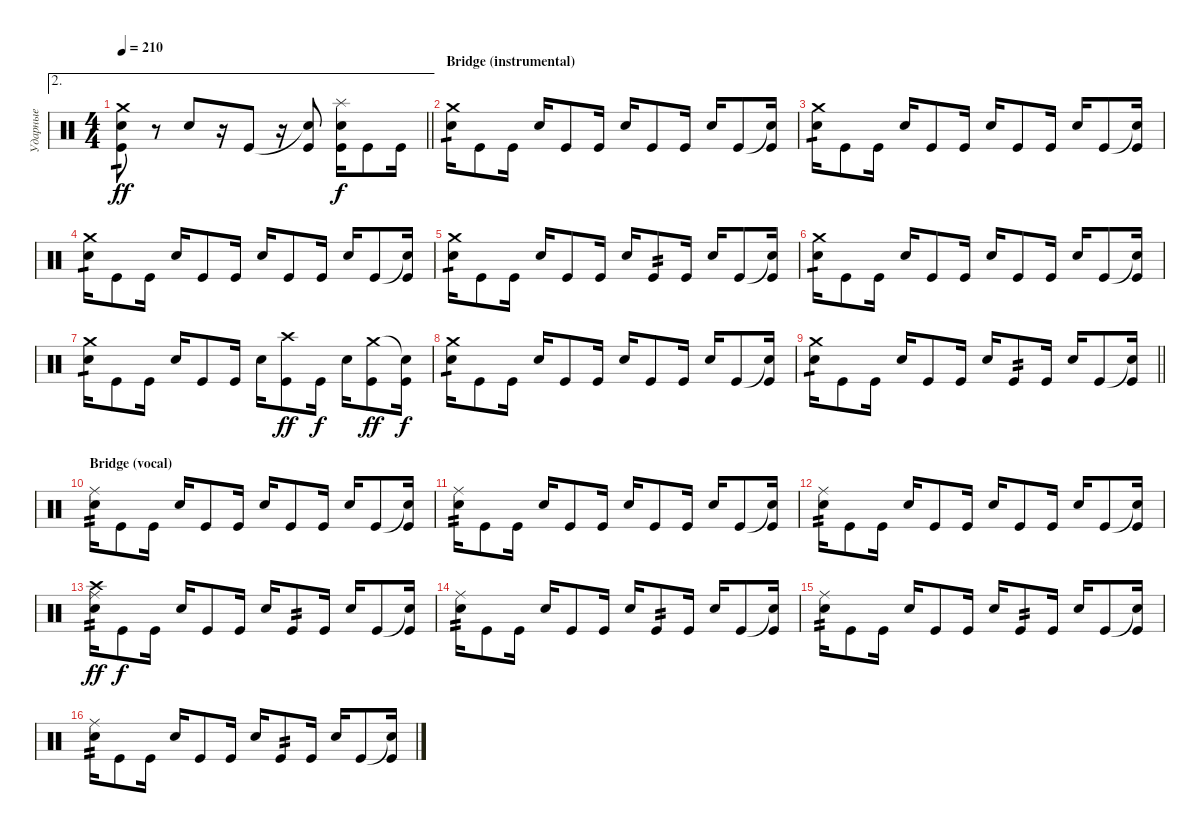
\track ("Ударные" "Ударные") {instrument percussion}
\staff {score}
\articulation defaults
\ae 2
\ts (4 4)
\tempo 210
\clef neutral
\barLineRight lightlight
\ks c
("Crash medium (hit)" "Electric Snare (hit)" "Kick (hit)").8{tp 1 dy ff} r.8 "Electric Snare (hit)".8 r.16 "Kick (hit)".8 r.16 ("Snare (hit)"{t} "Kick (hit)").8 ("Splash (hit)" "Electric Snare (hit)" "Kick (hit)").16{dy f} "Kick (hit)".8 "Kick (hit)".16 |
\section ("" "Bridge (instrumental)")
("Crash medium (hit)" "Electric Snare (hit)").16{tp 1} "Kick (hit)".8 "Kick (hit)".16 "Electric Snare (hit)".16 "Kick (hit)".8 "Kick (hit)".16 "Electric Snare (hit)".16 "Kick (hit)".8 "Kick (hit)".16 "Electric Snare (hit)".16 "Kick (hit)".8 ("Snare (hit)"{t} "Kick (hit)").16 |
("Crash medium (hit)" "Electric Snare (hit)").16{tp 1} "Kick (hit)".8 "Kick (hit)".16 "Electric Snare (hit)".16 "Kick (hit)".8 "Kick (hit)".16 "Electric Snare (hit)".16 "Kick (hit)".8 "Kick (hit)".16 "Electric Snare (hit)".16 "Kick (hit)".8 ("Snare (hit)"{t} "Kick (hit)").16 |
("Crash medium (hit)" "Electric Snare (hit)").16{tp 1} "Kick (hit)".8 "Kick (hit)".16 "Electric Snare (hit)".16 "Kick (hit)".8 "Kick (hit)".16 "Electric Snare (hit)".16 "Kick (hit)".8 "Kick (hit)".16 "Electric Snare (hit)".16 "Kick (hit)".8 ("Snare (hit)"{t} "Kick (hit)").16 |
("Crash medium (hit)" "Electric Snare (hit)").16{tp 1} "Kick (hit)".8 "Kick (hit)".16 "Electric Snare (hit)".16 "Kick (hit)".8 "Kick (hit)".16 "Electric Snare (hit)".16 "Kick (hit)".8{tp 2} "Kick (hit)".16 "Electric Snare (hit)".16 "Kick (hit)".8 ("Snare (hit)"{t} "Kick (hit)").16 |
("Crash medium (hit)" "Electric Snare (hit)").16{tp 1} "Kick (hit)".8 "Kick (hit)".16 "Electric Snare (hit)".16 "Kick (hit)".8 "Kick (hit)".16 "Electric Snare (hit)".16 "Kick (hit)".8 "Kick (hit)".16 "Electric Snare (hit)".16 "Kick (hit)".8 ("Snare (hit)"{t} "Kick (hit)").16 |
("Crash medium (hit)" "Electric Snare (hit)").16{tp 1} "Kick (hit)".8 "Kick (hit)".16 "Electric Snare (hit)".16 "Kick (hit)".8 "Kick (hit)".16 "Electric Snare (hit)".16 ("Crash high (hit)" "Kick (hit)").8{dy ff} "Kick (hit)".16{dy f} "Electric Snare (hit)".16 ("Crash medium (hit)" "Kick (hit)").8{dy ff} ("Snare (hit)"{t} "Kick (hit)").16{dy f} |
("Crash medium (hit)" "Electric Snare (hit)").16{tp 1} "Kick (hit)".8 "Kick (hit)".16 "Electric Snare (hit)".16 "Kick (hit)".8 "Kick (hit)".16 "Electric Snare (hit)".16 "Kick (hit)".8 "Kick (hit)".16 "Electric Snare (hit)".16 "Kick (hit)".8 ("Snare (hit)"{t} "Kick (hit)").16 |
\barLineRight lightlight
("Crash medium (hit)" "Electric Snare (hit)").16{tp 1} "Kick (hit)".8 "Kick (hit)".16 "Electric Snare (hit)".16 "Kick (hit)".8 "Kick (hit)".16 "Electric Snare (hit)".16 "Kick (hit)".8{tp 2} "Kick (hit)".16 "Electric Snare (hit)".16 "Kick (hit)".8 ("Snare (hit)"{t} "Kick (hit)").16 |
\section ("" "Bridge (vocal)")
("Ride (middle)" "Electric Snare (hit)").16{tp 2} "Kick (hit)".8 "Kick (hit)".16 "Electric Snare (hit)".16 "Kick (hit)".8 "Kick (hit)".16 "Electric Snare (hit)".16 "Kick (hit)".8 "Kick (hit)".16 "Electric Snare (hit)".16 "Kick (hit)".8 ("Snare (hit)"{t} "Kick (hit)").16 |
("Ride (middle)" "Electric Snare (hit)").16{tp 2} "Kick (hit)".8 "Kick (hit)".16 "Electric Snare (hit)".16 "Kick (hit)".8 "Kick (hit)".16 "Electric Snare (hit)".16 "Kick (hit)".8 "Kick (hit)".16 "Electric Snare (hit)".16 "Kick (hit)".8 ("Snare (hit)"{t} "Kick (hit)").16 |
("Ride (middle)" "Electric Snare (hit)").16{tp 2} "Kick (hit)".8 "Kick (hit)".16 "Electric Snare (hit)".16 "Kick (hit)".8 "Kick (hit)".16 "Electric Snare (hit)".16 "Kick (hit)".8 "Kick (hit)".16 "Electric Snare (hit)".16 "Kick (hit)".8 ("Snare (hit)"{t} "Kick (hit)").16 |
("Crash high (hit)" "Ride (middle)" "Electric Snare (hit)").16{tp 2 dy ff} "Kick (hit)".8{dy f} "Kick (hit)".16 "Electric Snare (hit)".16 "Kick (hit)".8 "Kick (hit)".16 "Electric Snare (hit)".16 "Kick (hit)".8{tp 2} "Kick (hit)".16 "Electric Snare (hit)".16 "Kick (hit)".8 ("Snare (hit)"{t} "Kick (hit)").16 |
("Ride (middle)" "Electric Snare (hit)").16{tp 2} "Kick (hit)".8 "Kick (hit)".16 "Electric Snare (hit)".16 "Kick (hit)".8 "Kick (hit)".16 "Electric Snare (hit)".16 "Kick (hit)".8{tp 2} "Kick (hit)".16 "Electric Snare (hit)".16 "Kick (hit)".8 ("Snare (hit)"{t} "Kick (hit)").16 |
("Ride (middle)" "Electric Snare (hit)").16{tp 2} "Kick (hit)".8 "Kick (hit)".16 "Electric Snare (hit)".16 "Kick (hit)".8 "Kick (hit)".16 "Electric Snare (hit)".16 "Kick (hit)".8{tp 2} "Kick (hit)".16 "Electric Snare (hit)".16 "Kick (hit)".8 ("Snare (hit)"{t} "Kick (hit)").16 |
("Ride (middle)" "Electric Snare (hit)").16{tp 2} "Kick (hit)".8 "Kick (hit)".16 "Electric Snare (hit)".16 "Kick (hit)".8 "Kick (hit)".16 "Electric Snare (hit)".16 "Kick (hit)".8{tp 2} "Kick (hit)".16 "Electric Snare (hit)".16 "Kick (hit)".8 ("Snare (hit)"{t} "Kick (hit)").16
